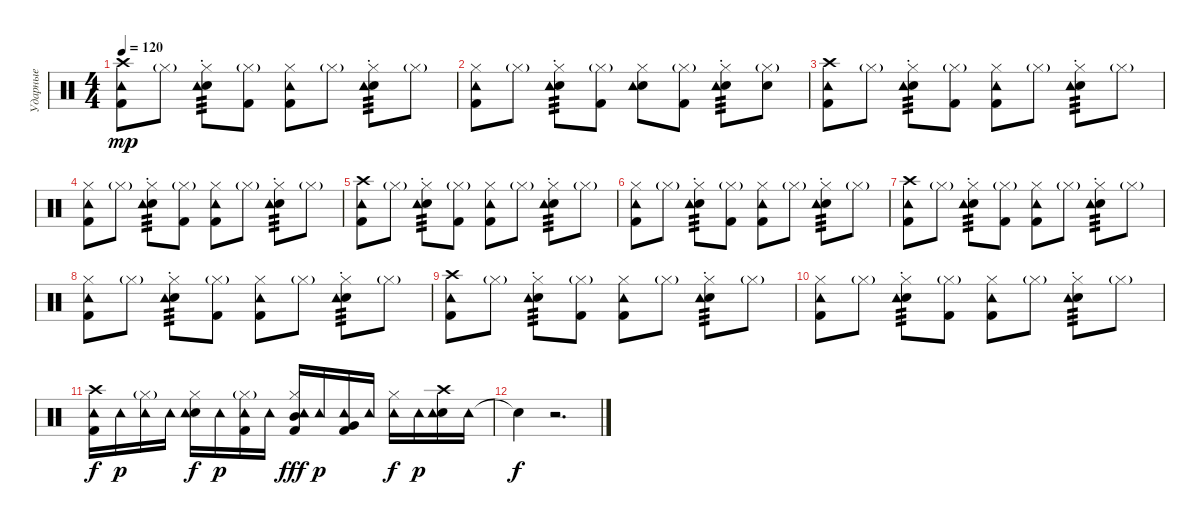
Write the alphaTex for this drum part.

\track ("Ударные" "Ударные") {instrument percussion}
\staff {score}
\articulation defaults
\ts (4 4)
\tempo 120
\clef neutral
\ks c
("Kick (hit) 2" "Crash high (hit)" "Tambourine (hit)").8{dy mp} "Hi-Hat (closed)"{g}.8 ("Electric Snare (hit)" "Hi-Hat (closed)" "Tambourine (hit)"{st}).8{tp 3} ("Kick (hit) 2" "Hi-Hat (closed)"{g}).8 ("Kick (hit) 2" "Hi-Hat (closed)" "Tambourine (hit)").8 "Hi-Hat (closed)"{g}.8 ("Electric Snare (hit)" "Hi-Hat (closed)" "Tambourine (hit)"{st}).8{tp 3} "Hi-Hat (closed)"{g}.8 |
("Kick (hit) 2" "Hi-Hat (closed)" "Tambourine (hit)").8 "Hi-Hat (closed)"{g}.8 ("Electric Snare (hit)" "Hi-Hat (closed)" "Tambourine (hit)"{st}).8{tp 3} ("Kick (hit) 2" "Hi-Hat (closed)"{g}).8 ("Electric Snare (hit)" "Hi-Hat (closed)" "Tambourine (hit)").8 ("Kick (hit) 2" "Hi-Hat (closed)"{g}).8 ("Electric Snare (hit)" "Hi-Hat (closed)" "Tambourine (hit)"{st}).8{tp 3} ("Electric Snare (hit)" "Hi-Hat (closed)"{g}).8 |
("Kick (hit) 2" "Crash high (hit)" "Tambourine (hit)").8 "Hi-Hat (closed)"{g}.8 ("Electric Snare (hit)" "Hi-Hat (closed)" "Tambourine (hit)"{st}).8{tp 3} ("Kick (hit) 2" "Hi-Hat (closed)"{g}).8 ("Kick (hit) 2" "Hi-Hat (closed)" "Tambourine (hit)").8 "Hi-Hat (closed)"{g}.8 ("Electric Snare (hit)" "Hi-Hat (closed)" "Tambourine (hit)"{st}).8{tp 3} "Hi-Hat (closed)"{g}.8 |
("Kick (hit) 2" "Hi-Hat (closed)" "Tambourine (hit)").8 "Hi-Hat (closed)"{g}.8 ("Electric Snare (hit)" "Hi-Hat (closed)" "Tambourine (hit)"{st}).8{tp 3} ("Kick (hit) 2" "Hi-Hat (closed)"{g}).8 ("Kick (hit) 2" "Hi-Hat (closed)" "Tambourine (hit)").8 "Hi-Hat (closed)"{g}.8 ("Electric Snare (hit)" "Hi-Hat (closed)" "Tambourine (hit)"{st}).8{tp 3} "Hi-Hat (closed)"{g}.8 |
("Kick (hit) 2" "Crash high (hit)" "Tambourine (hit)").8 "Hi-Hat (closed)"{g}.8 ("Electric Snare (hit)" "Hi-Hat (closed)" "Tambourine (hit)"{st}).8{tp 3} ("Kick (hit) 2" "Hi-Hat (closed)"{g}).8 ("Kick (hit) 2" "Hi-Hat (closed)" "Tambourine (hit)").8 "Hi-Hat (closed)"{g}.8 ("Electric Snare (hit)" "Hi-Hat (closed)" "Tambourine (hit)"{st}).8{tp 3} "Hi-Hat (closed)"{g}.8 |
("Kick (hit) 2" "Hi-Hat (closed)" "Tambourine (hit)").8 "Hi-Hat (closed)"{g}.8 ("Electric Snare (hit)" "Hi-Hat (closed)" "Tambourine (hit)"{st}).8{tp 3} ("Kick (hit) 2" "Hi-Hat (closed)"{g}).8 ("Kick (hit) 2" "Hi-Hat (closed)" "Tambourine (hit)").8 "Hi-Hat (closed)"{g}.8 ("Electric Snare (hit)" "Hi-Hat (closed)" "Tambourine (hit)"{st}).8{tp 3} "Hi-Hat (closed)"{g}.8 |
("Kick (hit) 2" "Crash high (hit)" "Tambourine (hit)").8 "Hi-Hat (closed)"{g}.8 ("Electric Snare (hit)" "Hi-Hat (closed)" "Tambourine (hit)"{st}).8{tp 3} ("Kick (hit) 2" "Hi-Hat (closed)"{g}).8 ("Kick (hit) 2" "Hi-Hat (closed)" "Tambourine (hit)").8 "Hi-Hat (closed)"{g}.8 ("Electric Snare (hit)" "Hi-Hat (closed)" "Tambourine (hit)"{st}).8{tp 3} "Hi-Hat (closed)"{g}.8 |
("Kick (hit) 2" "Hi-Hat (closed)" "Tambourine (hit)").8 "Hi-Hat (closed)"{g}.8 ("Electric Snare (hit)" "Hi-Hat (closed)" "Tambourine (hit)"{st}).8{tp 3} ("Kick (hit) 2" "Hi-Hat (closed)"{g}).8 ("Kick (hit) 2" "Hi-Hat (closed)" "Tambourine (hit)").8 "Hi-Hat (closed)"{g}.8 ("Electric Snare (hit)" "Hi-Hat (closed)" "Tambourine (hit)"{st}).8{tp 3} "Hi-Hat (closed)"{g}.8 |
("Kick (hit) 2" "Crash high (hit)" "Tambourine (hit)").8 "Hi-Hat (closed)"{g}.8 ("Electric Snare (hit)" "Hi-Hat (closed)" "Tambourine (hit)"{st}).8{tp 3} ("Kick (hit) 2" "Hi-Hat (closed)"{g}).8 ("Kick (hit) 2" "Hi-Hat (closed)" "Tambourine (hit)").8 "Hi-Hat (closed)"{g}.8 ("Electric Snare (hit)" "Hi-Hat (closed)" "Tambourine (hit)"{st}).8{tp 3} "Hi-Hat (closed)"{g}.8 |
("Kick (hit) 2" "Hi-Hat (closed)" "Tambourine (hit)").8 "Hi-Hat (closed)"{g}.8 ("Electric Snare (hit)" "Hi-Hat (closed)" "Tambourine (hit)"{st}).8{tp 3} ("Kick (hit) 2" "Hi-Hat (closed)"{g}).8 ("Kick (hit) 2" "Hi-Hat (closed)" "Tambourine (hit)").8 "Hi-Hat (closed)"{g}.8 ("Electric Snare (hit)" "Hi-Hat (closed)" "Tambourine (hit)"{st}).8{tp 3} "Hi-Hat (closed)"{g}.8 |
("Kick (hit) 2" "Crash high (hit)" "Tambourine (hit)").16{dy f} "Tambourine (hit)".16{dy p} ("Hi-Hat (closed)"{g} "Tambourine (hit)").16 "Tambourine (hit)".16 ("Electric Snare (hit)" "Hi-Hat (closed)" "Tambourine (hit)").16{dy f} "Tambourine (hit)".16{dy p} ("Kick (hit) 2" "Hi-Hat (closed)"{g} "Tambourine (hit)").16 "Tambourine (hit)".16 ("Kick (hit) 2" "Hi-Hat (closed)" "Mid Tom (hit)" "Tambourine (hit)").16{dy fff} "Tambourine (hit)".16{dy p} ("Kick (hit) 2" "Very Low Tom (hit)" "Tambourine (hit)").16 "Tambourine (hit)".16 ("Hi-Hat (closed)" "Tambourine (hit)").16{dy f} "Tambourine (hit)".16{dy p} ("Electric Snare (hit)" "Crash high (hit)" "Tambourine (hit)").16 "Tambourine (hit)".16 |
"Snare (hit)"{t}.4{dy f} r.2{d}
